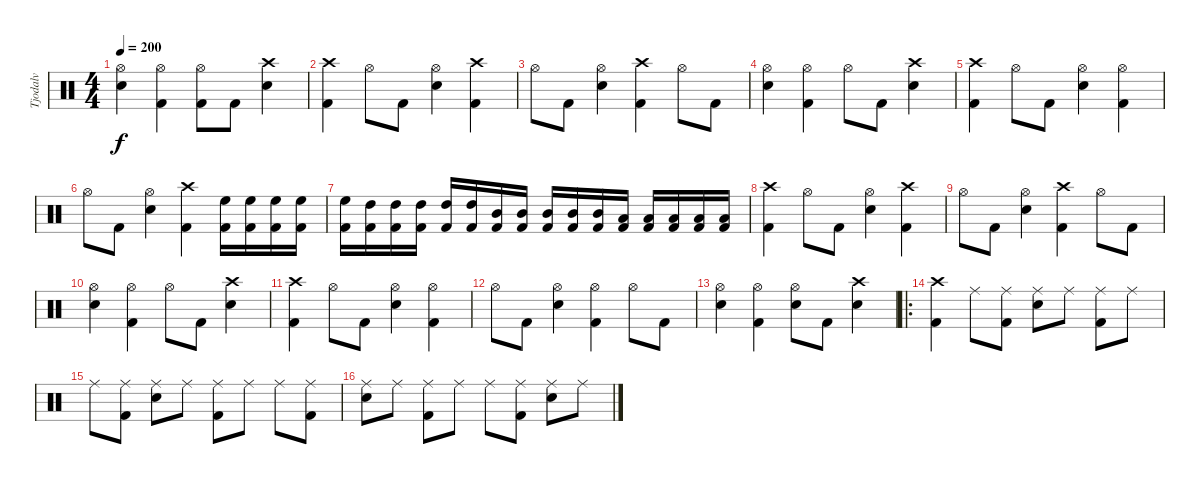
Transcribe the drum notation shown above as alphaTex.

\track ("Tjodalv" "Tjodalv") {instrument percussion}
\staff {score}
\articulation defaults
\ts (4 4)
\tempo 200
\clef neutral
\ks c
("Snare (hit) 2" "Hi-Hat (open)").4{dy f} ("Kick (hit) 2" "Hi-Hat (open)").4 ("Kick (hit) 2" "Hi-Hat (open)").8 "Kick (hit) 2".8 ("Snare (hit) 2" "Crash high (hit)").4 |
("Kick (hit) 2" "Crash high (hit)").4 "Hi-Hat (open)".8 "Kick (hit) 2".8 ("Snare (hit) 2" "Hi-Hat (open)").4 ("Kick (hit) 2" "Crash high (hit)").4 |
"Hi-Hat (open)".8 "Kick (hit) 2".8 ("Snare (hit) 2" "Hi-Hat (open)").4 ("Kick (hit) 2" "Crash high (hit)").4 "Hi-Hat (open)".8 "Kick (hit) 2".8 |
("Snare (hit) 2" "Hi-Hat (open)").4 ("Kick (hit) 2" "Hi-Hat (open)").4 "Hi-Hat (open)".8 "Kick (hit) 2".8 ("Snare (hit) 2" "Crash high (hit)").4 |
("Kick (hit) 2" "Crash high (hit)").4 "Hi-Hat (open)".8 "Kick (hit) 2".8 ("Snare (hit) 2" "Hi-Hat (open)").4 ("Kick (hit) 2" "Hi-Hat (open)").4 |
"Hi-Hat (open)".8 "Kick (hit) 2".8 ("Snare (hit) 2" "Hi-Hat (open)").4 ("Kick (hit) 2" "Crash high (hit)").4 ("Kick (hit) 2" "High Floor Tom (hit)").16 ("Kick (hit) 2" "High Floor Tom (hit)").16 ("Kick (hit) 2" "High Floor Tom (hit)").16 ("Kick (hit) 2" "High Floor Tom (hit)").16 |
("Kick (hit) 2" "High Floor Tom (hit)").16 ("Kick (hit) 2" "High Tom (hit)").16 ("Kick (hit) 2" "High Tom (hit)").16 ("Kick (hit) 2" "High Tom (hit)").16 ("Kick (hit) 2" "High Tom (hit)").16 ("Kick (hit) 2" "High Tom (hit)").16 ("Kick (hit) 2" "Mid Tom (hit)").16 ("Kick (hit) 2" "Mid Tom (hit)").16 ("Kick (hit) 2" "Mid Tom (hit)").16 ("Kick (hit) 2" "Mid Tom (hit)").16 ("Kick (hit) 2" "Mid Tom (hit)").16 ("Kick (hit) 2" "Low Tom (hit)").16 ("Kick (hit) 2" "Low Tom (hit)").16 ("Kick (hit) 2" "Low Tom (hit)").16 ("Kick (hit) 2" "Low Tom (hit)").16 ("Kick (hit) 2" "Low Tom (hit)").16 |
("Kick (hit) 2" "Crash high (hit)").4 "Hi-Hat (open)".8 "Kick (hit) 2".8 ("Snare (hit) 2" "Hi-Hat (open)").4 ("Kick (hit) 2" "Crash high (hit)").4 |
"Hi-Hat (open)".8 "Kick (hit) 2".8 ("Snare (hit) 2" "Hi-Hat (open)").4 ("Kick (hit) 2" "Crash high (hit)").4 "Hi-Hat (open)".8 "Kick (hit) 2".8 |
("Snare (hit) 2" "Hi-Hat (open)").4 ("Kick (hit) 2" "Hi-Hat (open)").4 "Hi-Hat (open)".8 "Kick (hit) 2".8 ("Snare (hit) 2" "Crash high (hit)").4 |
("Kick (hit) 2" "Crash high (hit)").4 "Hi-Hat (open)".8 "Kick (hit) 2".8 ("Snare (hit) 2" "Hi-Hat (open)").4 ("Kick (hit) 2" "Hi-Hat (open)").4 |
"Hi-Hat (open)".8 "Kick (hit) 2".8 ("Snare (hit) 2" "Hi-Hat (open)").4 ("Kick (hit) 2" "Hi-Hat (open)").4 "Hi-Hat (open)".8 "Kick (hit) 2".8 |
("Snare (hit) 2" "Hi-Hat (open)").4 ("Kick (hit) 2" "Hi-Hat (open)").4 ("Snare (hit) 2" "Hi-Hat (open)").8 "Kick (hit) 2".8 ("Snare (hit) 2" "Crash high (hit)").4 |
\ro
("Kick (hit) 2" "Crash high (hit)").4 "Ride (middle)".8 ("Kick (hit) 2" "Ride (middle)").8 ("Snare (hit) 2" "Ride (middle)").8 "Ride (middle)".8 ("Kick (hit) 2" "Ride (middle)").8 "Ride (middle)".8 |
"Ride (middle)".8 ("Kick (hit) 2" "Ride (middle)").8 ("Snare (hit) 2" "Ride (middle)").8 "Ride (middle)".8 ("Kick (hit) 2" "Ride (middle)").8 "Ride (middle)".8 "Ride (middle)".8 ("Kick (hit) 2" "Ride (middle)").8 |
("Snare (hit) 2" "Ride (middle)").8 "Ride (middle)".8 ("Kick (hit) 2" "Ride (middle)").8 "Ride (middle)".8 "Ride (middle)".8 ("Kick (hit) 2" "Ride (middle)").8 ("Snare (hit) 2" "Ride (middle)").8 "Ride (middle)".8
